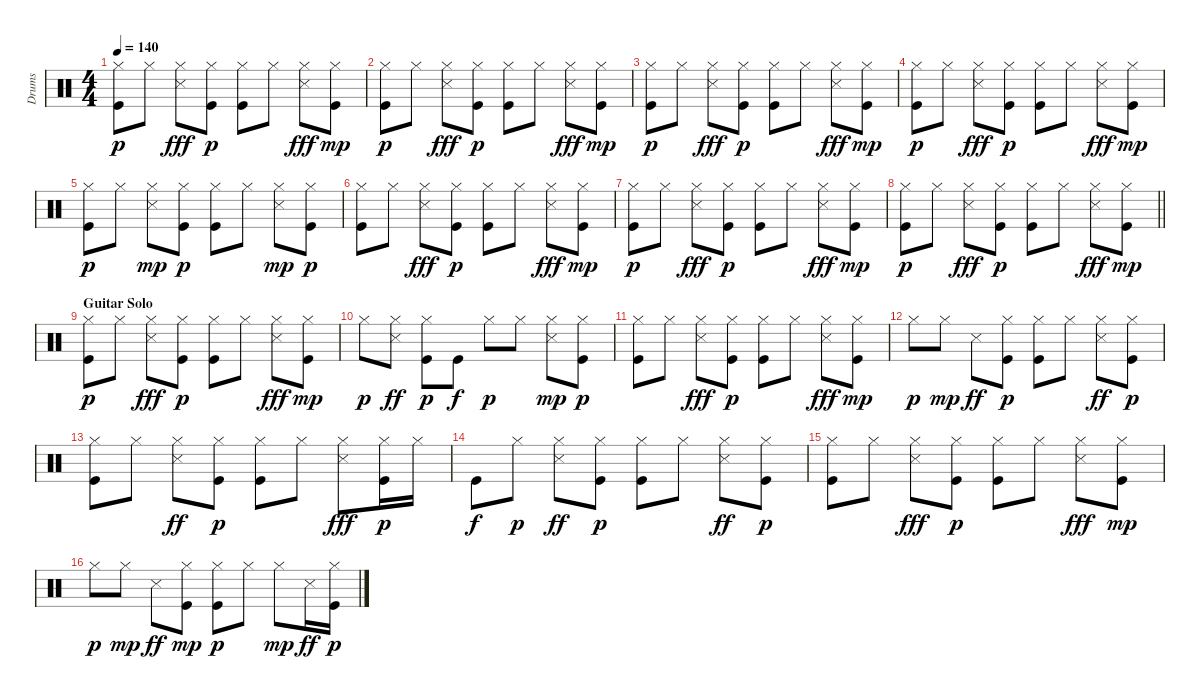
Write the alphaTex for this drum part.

\track ("Drums" "Drums") {instrument percussion}
\staff {score}
\articulation defaults
\ts (4 4)
\tempo 140
\clef neutral
\ks c
("Kick (hit)" "Hi-Hat (closed)").8{dy p} "Hi-Hat (closed)".8 ("Hi-Hat (closed)" "Snare (side stick) 3").8{dy fff} ("Kick (hit)" "Hi-Hat (closed)").8{dy p} ("Kick (hit)" "Hi-Hat (closed)").8 "Hi-Hat (closed)".8 ("Hi-Hat (closed)" "Snare (side stick) 3").8{dy fff} ("Hi-Hat (closed)" "Kick (hit)").8{dy mp} |
("Kick (hit)" "Hi-Hat (closed)").8{dy p} "Hi-Hat (closed)".8 ("Hi-Hat (closed)" "Snare (side stick) 3").8{dy fff} ("Kick (hit)" "Hi-Hat (closed)").8{dy p} ("Kick (hit)" "Hi-Hat (closed)").8 "Hi-Hat (closed)".8 ("Hi-Hat (closed)" "Snare (side stick) 3").8{dy fff} ("Hi-Hat (closed)" "Kick (hit)").8{dy mp} |
("Kick (hit)" "Hi-Hat (closed)").8{dy p} "Hi-Hat (closed)".8 ("Hi-Hat (closed)" "Snare (side stick) 3").8{dy fff} ("Kick (hit)" "Hi-Hat (closed)").8{dy p} ("Kick (hit)" "Hi-Hat (closed)").8 "Hi-Hat (closed)".8 ("Hi-Hat (closed)" "Snare (side stick) 3").8{dy fff} ("Hi-Hat (closed)" "Kick (hit)").8{dy mp} |
("Kick (hit)" "Hi-Hat (closed)").8{dy p} "Hi-Hat (closed)".8 ("Hi-Hat (closed)" "Snare (side stick) 3").8{dy fff} ("Kick (hit)" "Hi-Hat (closed)").8{dy p} ("Kick (hit)" "Hi-Hat (closed)").8 "Hi-Hat (closed)".8 ("Hi-Hat (closed)" "Snare (side stick) 3").8{dy fff} ("Hi-Hat (closed)" "Kick (hit)").8{dy mp} |
("Hi-Hat (closed)" "Kick (hit)").8{dy p} "Hi-Hat (closed)".8 ("Hi-Hat (closed)" "Snare (side stick) 3").8{dy mp} ("Hi-Hat (closed)" "Kick (hit)").8{dy p} ("Hi-Hat (closed)" "Kick (hit)").8 "Hi-Hat (closed)".8 ("Snare (side stick) 3" "Hi-Hat (closed)").8{dy mp} ("Hi-Hat (closed)" "Kick (hit)").8{dy p} |
("Kick (hit)" "Hi-Hat (closed)").8 "Hi-Hat (closed)".8 ("Hi-Hat (closed)" "Snare (side stick) 3").8{dy fff} ("Kick (hit)" "Hi-Hat (closed)").8{dy p} ("Kick (hit)" "Hi-Hat (closed)").8 "Hi-Hat (closed)".8 ("Hi-Hat (closed)" "Snare (side stick) 3").8{dy fff} ("Hi-Hat (closed)" "Kick (hit)").8{dy mp} |
("Kick (hit)" "Hi-Hat (closed)").8{dy p} "Hi-Hat (closed)".8 ("Hi-Hat (closed)" "Snare (side stick) 3").8{dy fff} ("Kick (hit)" "Hi-Hat (closed)").8{dy p} ("Kick (hit)" "Hi-Hat (closed)").8 "Hi-Hat (closed)".8 ("Hi-Hat (closed)" "Snare (side stick) 3").8{dy fff} ("Hi-Hat (closed)" "Kick (hit)").8{dy mp} |
\barLineRight lightlight
("Kick (hit)" "Hi-Hat (closed)").8{dy p} "Hi-Hat (closed)".8 ("Hi-Hat (closed)" "Snare (side stick) 3").8{dy fff} ("Kick (hit)" "Hi-Hat (closed)").8{dy p} ("Kick (hit)" "Hi-Hat (closed)").8 "Hi-Hat (closed)".8 ("Hi-Hat (closed)" "Snare (side stick) 3").8{dy fff} ("Hi-Hat (closed)" "Kick (hit)").8{dy mp} |
\section ("" "Guitar Solo")
("Kick (hit)" "Hi-Hat (closed)").8{dy p} "Hi-Hat (closed)".8 ("Hi-Hat (closed)" "Snare (side stick) 3").8{dy fff} ("Kick (hit)" "Hi-Hat (closed)").8{dy p} ("Kick (hit)" "Hi-Hat (closed)").8 "Hi-Hat (closed)".8 ("Hi-Hat (closed)" "Snare (side stick) 3").8{dy fff} ("Hi-Hat (closed)" "Kick (hit)").8{dy mp} |
"Hi-Hat (closed)".8{dy p} ("Hi-Hat (closed)" "Snare (side stick) 3").8{dy ff} ("Kick (hit)" "Hi-Hat (closed)").8{dy p} "Kick (hit)".8{dy f} "Hi-Hat (closed)".8{dy p} "Hi-Hat (closed)".8 ("Snare (side stick) 3" "Hi-Hat (closed)").8{dy mp} ("Kick (hit)" "Hi-Hat (closed)").8{dy p} |
("Kick (hit)" "Hi-Hat (closed)").8 "Hi-Hat (closed)".8 ("Hi-Hat (closed)" "Snare (side stick) 3").8{dy fff} ("Kick (hit)" "Hi-Hat (closed)").8{dy p} ("Kick (hit)" "Hi-Hat (closed)").8 "Hi-Hat (closed)".8 ("Hi-Hat (closed)" "Snare (side stick) 3").8{dy fff} ("Hi-Hat (closed)" "Kick (hit)").8{dy mp} |
"Hi-Hat (closed)".8{dy p} "Hi-Hat (closed)".8{dy mp} "Snare (side stick) 3".8{dy ff} ("Hi-Hat (closed)" "Kick (hit)").8{dy p} ("Hi-Hat (closed)" "Kick (hit)").8 "Hi-Hat (closed)".8 ("Hi-Hat (closed)" "Snare (side stick) 3").8{dy ff} ("Kick (hit)" "Hi-Hat (closed)").8{dy p} |
("Hi-Hat (closed)" "Kick (hit)").8 "Hi-Hat (closed)".8 ("Hi-Hat (closed)" "Snare (side stick) 3").8{dy ff} ("Hi-Hat (closed)" "Kick (hit)").8{dy p} ("Hi-Hat (closed)" "Kick (hit)").8 "Hi-Hat (closed)".8 ("Hi-Hat (closed)" "Snare (side stick) 3").8{dy fff} ("Hi-Hat (closed)" "Kick (hit)").16{dy p} "Hi-Hat (closed)".16 |
"Kick (hit)".8{dy f} "Hi-Hat (closed)".8{dy p} ("Hi-Hat (closed)" "Snare (side stick) 3").8{dy ff} ("Hi-Hat (closed)" "Kick (hit)").8{dy p} ("Kick (hit)" "Hi-Hat (closed)").8 "Hi-Hat (closed)".8 ("Hi-Hat (closed)" "Snare (side stick) 3").8{dy ff} ("Kick (hit)" "Hi-Hat (closed)").8{dy p} |
("Kick (hit)" "Hi-Hat (closed)").8 "Hi-Hat (closed)".8 ("Hi-Hat (closed)" "Snare (side stick) 3").8{dy fff} ("Kick (hit)" "Hi-Hat (closed)").8{dy p} ("Kick (hit)" "Hi-Hat (closed)").8 "Hi-Hat (closed)".8 ("Hi-Hat (closed)" "Snare (side stick) 3").8{dy fff} ("Hi-Hat (closed)" "Kick (hit)").8{dy mp} |
"Hi-Hat (closed)".8{dy p} "Hi-Hat (closed)".8{dy mp} "Snare (side stick) 3".8{dy ff} ("Hi-Hat (closed)" "Kick (hit)").8{dy mp} ("Hi-Hat (closed)" "Kick (hit)").8{dy p} "Hi-Hat (closed)".8 "Hi-Hat (closed)".8{dy mp} "Snare (side stick) 3".16{dy ff} ("Hi-Hat (closed)" "Kick (hit)").16{dy p}
